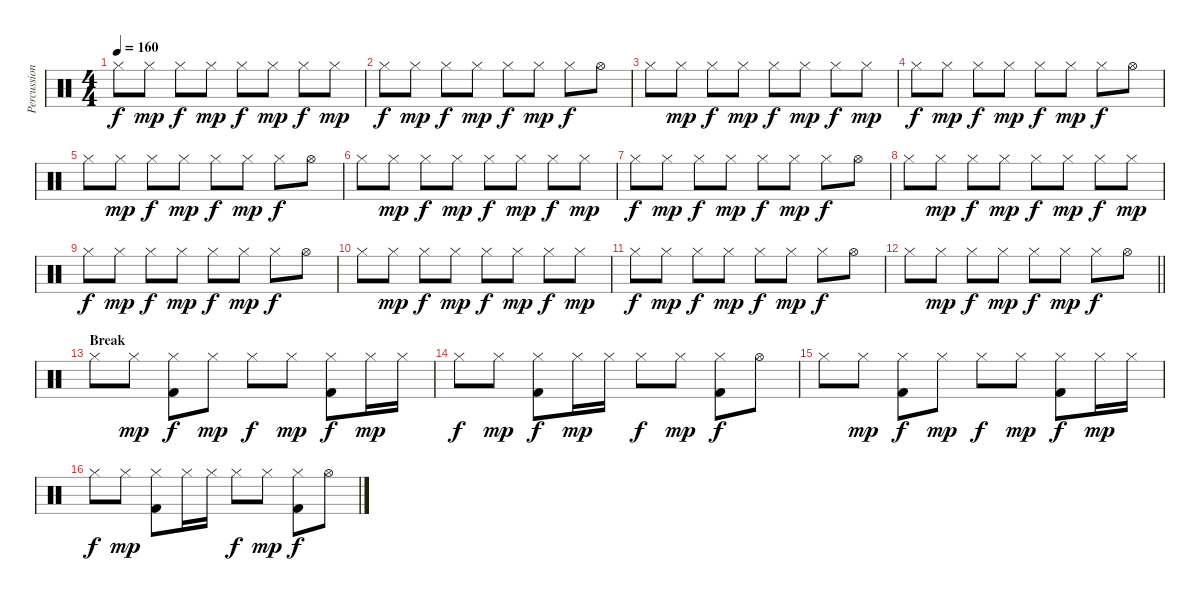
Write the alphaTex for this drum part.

\track ("Percussion" "Percussion") {instrument percussion}
\staff {score}
\articulation defaults
\ts (4 4)
\tempo 160
\clef neutral
\ks c "Hi-Hat (closed)".8{dy f} "Hi-Hat (closed)".8{dy mp} "Hi-Hat (closed)".8{dy f} "Hi-Hat (closed)".8{dy mp} "Hi-Hat (closed)".8{dy f} "Hi-Hat (closed)".8{dy mp} "Hi-Hat (closed)".8{dy f} "Hi-Hat (closed)".8{dy mp}
|
"Hi-Hat (closed)".8{dy f} "Hi-Hat (closed)".8{dy mp} "Hi-Hat (closed)".8{dy f} "Hi-Hat (closed)".8{dy mp} "Hi-Hat (closed)".8{dy f} "Hi-Hat (closed)".8{dy mp} "Hi-Hat (closed)".8{dy f} "Hi-Hat (open)".8 |
"Hi-Hat (closed)".8 "Hi-Hat (closed)".8{dy mp} "Hi-Hat (closed)".8{dy f} "Hi-Hat (closed)".8{dy mp} "Hi-Hat (closed)".8{dy f} "Hi-Hat (closed)".8{dy mp} "Hi-Hat (closed)".8{dy f} "Hi-Hat (closed)".8{dy mp} |
"Hi-Hat (closed)".8{dy f} "Hi-Hat (closed)".8{dy mp} "Hi-Hat (closed)".8{dy f} "Hi-Hat (closed)".8{dy mp} "Hi-Hat (closed)".8{dy f} "Hi-Hat (closed)".8{dy mp} "Hi-Hat (closed)".8{dy f} "Hi-Hat (open)".8 |
"Hi-Hat (closed)".8 "Hi-Hat (closed)".8{dy mp} "Hi-Hat (closed)".8{dy f} "Hi-Hat (closed)".8{dy mp} "Hi-Hat (closed)".8{dy f} "Hi-Hat (closed)".8{dy mp} "Hi-Hat (closed)".8{dy f} "Hi-Hat (open)".8 |
"Hi-Hat (closed)".8 "Hi-Hat (closed)".8{dy mp} "Hi-Hat (closed)".8{dy f} "Hi-Hat (closed)".8{dy mp} "Hi-Hat (closed)".8{dy f} "Hi-Hat (closed)".8{dy mp} "Hi-Hat (closed)".8{dy f} "Hi-Hat (closed)".8{dy mp} |
"Hi-Hat (closed)".8{dy f} "Hi-Hat (closed)".8{dy mp} "Hi-Hat (closed)".8{dy f} "Hi-Hat (closed)".8{dy mp} "Hi-Hat (closed)".8{dy f} "Hi-Hat (closed)".8{dy mp} "Hi-Hat (closed)".8{dy f} "Hi-Hat (open)".8 |
"Hi-Hat (closed)".8 "Hi-Hat (closed)".8{dy mp} "Hi-Hat (closed)".8{dy f} "Hi-Hat (closed)".8{dy mp} "Hi-Hat (closed)".8{dy f} "Hi-Hat (closed)".8{dy mp} "Hi-Hat (closed)".8{dy f} "Hi-Hat (closed)".8{dy mp} |
"Hi-Hat (closed)".8{dy f} "Hi-Hat (closed)".8{dy mp} "Hi-Hat (closed)".8{dy f} "Hi-Hat (closed)".8{dy mp} "Hi-Hat (closed)".8{dy f} "Hi-Hat (closed)".8{dy mp} "Hi-Hat (closed)".8{dy f} "Hi-Hat (open)".8 |
"Hi-Hat (closed)".8 "Hi-Hat (closed)".8{dy mp} "Hi-Hat (closed)".8{dy f} "Hi-Hat (closed)".8{dy mp} "Hi-Hat (closed)".8{dy f} "Hi-Hat (closed)".8{dy mp} "Hi-Hat (closed)".8{dy f} "Hi-Hat (closed)".8{dy mp} |
"Hi-Hat (closed)".8{dy f} "Hi-Hat (closed)".8{dy mp} "Hi-Hat (closed)".8{dy f} "Hi-Hat (closed)".8{dy mp} "Hi-Hat (closed)".8{dy f} "Hi-Hat (closed)".8{dy mp} "Hi-Hat (closed)".8{dy f} "Hi-Hat (open)".8 |
\barLineRight lightlight "Hi-Hat (closed)".8 "Hi-Hat (closed)".8{dy mp} "Hi-Hat (closed)".8{dy f} "Hi-Hat (closed)".8{dy mp} "Hi-Hat (closed)".8{dy f} "Hi-Hat (closed)".8{dy mp} "Hi-Hat (closed)".8{dy f} "Hi-Hat (open)".8
|
\section ("" "Break")
"Hi-Hat (closed)".8 "Hi-Hat (closed)".8{dy mp} ("Hi-Hat (closed)" "Kick (hit) 2").8{dy f} "Hi-Hat (closed)".8{dy mp} "Hi-Hat (closed)".8{dy f} "Hi-Hat (closed)".8{dy mp} ("Hi-Hat (closed)" "Kick (hit) 2").8{dy f} "Hi-Hat (closed)".16{dy mp} "Hi-Hat (closed)".16 |
"Hi-Hat (closed)".8{dy f} "Hi-Hat (closed)".8{dy mp} ("Hi-Hat (closed)" "Kick (hit) 2").8{dy f} "Hi-Hat (closed)".16{dy mp} "Hi-Hat (closed)".16 "Hi-Hat (closed)".8{dy f} "Hi-Hat (closed)".8{dy mp} ("Hi-Hat (closed)" "Kick (hit) 2").8{dy f} "Hi-Hat (open)".8 |
"Hi-Hat (closed)".8 "Hi-Hat (closed)".8{dy mp} ("Hi-Hat (closed)" "Kick (hit) 2").8{dy f} "Hi-Hat (closed)".8{dy mp} "Hi-Hat (closed)".8{dy f} "Hi-Hat (closed)".8{dy mp} ("Hi-Hat (closed)" "Kick (hit) 2").8{dy f} "Hi-Hat (closed)".16{dy mp} "Hi-Hat (closed)".16 |
"Hi-Hat (closed)".8{dy f} "Hi-Hat (closed)".8{dy mp} ("Hi-Hat (closed)" "Kick (hit) 2").8 "Hi-Hat (closed)".16 "Hi-Hat (closed)".16 "Hi-Hat (closed)".8{dy f} "Hi-Hat (closed)".8{dy mp} ("Hi-Hat (closed)" "Kick (hit) 2").8{dy f} "Hi-Hat (open)".8
